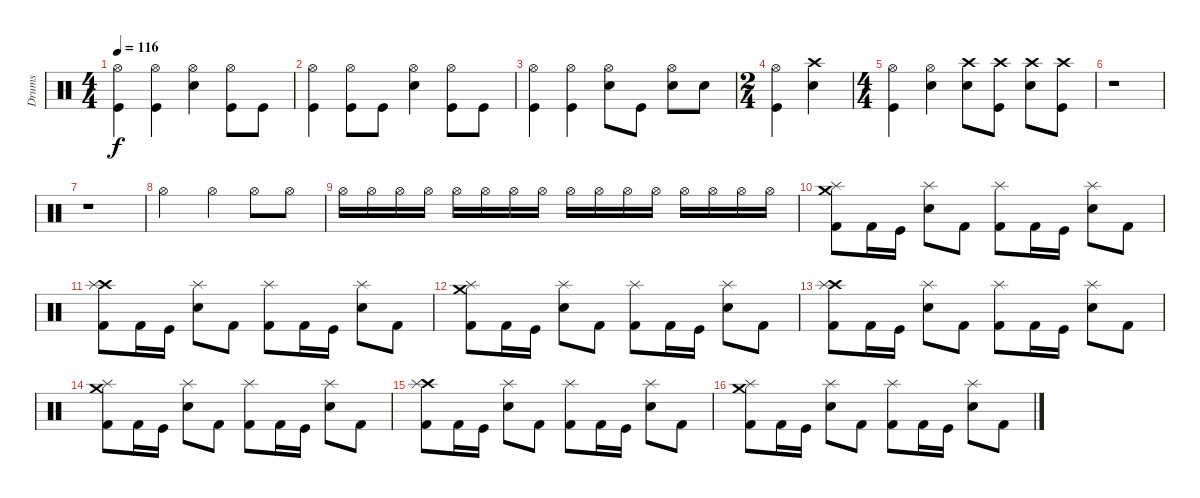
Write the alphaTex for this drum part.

\track ("Drums" "Drums") {instrument percussion}
\staff {score}
\articulation defaults
\ts (4 4)
\tempo 116
\clef neutral
\ks c
("Hi-Hat (open)" "Kick (hit)").4{dy f} ("Hi-Hat (open)" "Kick (hit)").4 ("Hi-Hat (open)" "Snare (hit) 2").4 ("Hi-Hat (open)" "Kick (hit)").8 "Kick (hit)".8 |
("Hi-Hat (open)" "Kick (hit)").4 ("Hi-Hat (open)" "Kick (hit)").8 "Kick (hit)".8 ("Hi-Hat (open)" "Snare (hit) 2").4 ("Hi-Hat (open)" "Kick (hit)").8 "Kick (hit)".8 |
("Hi-Hat (open)" "Kick (hit)").4 ("Hi-Hat (open)" "Kick (hit)").4 ("Hi-Hat (open)" "Snare (hit) 2").8 "Kick (hit)".8 ("Hi-Hat (open)" "Snare (hit) 2").8 "Snare (hit) 2".8 |
\ts (2 4)
("Hi-Hat (open)" "Kick (hit)").4 ("Crash high (hit)" "Snare (hit) 2").4 |
\ts (4 4)
("Hi-Hat (open)" "Kick (hit)").4 ("Hi-Hat (open)" "Snare (hit) 2").4 ("Crash high (hit)" "Snare (hit) 2").8 ("Crash high (hit)" "Kick (hit)").8 ("Crash high (hit)" "Snare (hit) 2").8 ("Crash high (hit)" "Kick (hit)").8 |
r.1 |
r.1 |
"Hi-Hat (open)".2{volume 3} "Hi-Hat (open)".4{volume 16} "Hi-Hat (open)".8 "Hi-Hat (open)".8 |
"Hi-Hat (open)".16 "Hi-Hat (open)".16 "Hi-Hat (open)".16 "Hi-Hat (open)".16 "Hi-Hat (open)".16 "Hi-Hat (open)".16 "Hi-Hat (open)".16 "Hi-Hat (open)".16 "Hi-Hat (open)".16 "Hi-Hat (open)".16 "Hi-Hat (open)".16 "Hi-Hat (open)".16 "Hi-Hat (open)".16 "Hi-Hat (open)".16 "Hi-Hat (open)".16 "Hi-Hat (open)".16 |
("Crash medium (hit)" "Splash (hit)" "Kick (hit) 2").8 "Kick (hit) 2".16 "Kick (hit)".16 ("Splash (hit)" "Snare (hit) 2").8 "Kick (hit) 2".8 ("Splash (hit)" "Kick (hit) 2").8 "Kick (hit) 2".16 "Kick (hit)".16 ("Splash (hit)" "Snare (hit) 2").8 "Kick (hit) 2".8 |
("Crash high (hit)" "Splash (hit)" "Kick (hit) 2").8 "Kick (hit) 2".16 "Kick (hit)".16 ("Splash (hit)" "Snare (hit) 2").8 "Kick (hit) 2".8 ("Splash (hit)" "Kick (hit) 2").8 "Kick (hit) 2".16 "Kick (hit)".16 ("Splash (hit)" "Snare (hit) 2").8 "Kick (hit) 2".8 |
("Crash medium (hit)" "Splash (hit)" "Kick (hit) 2").8 "Kick (hit) 2".16 "Kick (hit)".16 ("Splash (hit)" "Snare (hit) 2").8 "Kick (hit) 2".8 ("Splash (hit)" "Kick (hit) 2").8 "Kick (hit) 2".16 "Kick (hit)".16 ("Splash (hit)" "Snare (hit) 2").8 "Kick (hit) 2".8 |
("Crash high (hit)" "Splash (hit)" "Kick (hit) 2").8 "Kick (hit) 2".16 "Kick (hit)".16 ("Splash (hit)" "Snare (hit) 2").8 "Kick (hit) 2".8 ("Splash (hit)" "Kick (hit) 2").8 "Kick (hit) 2".16 "Kick (hit)".16 ("Splash (hit)" "Snare (hit) 2").8 "Kick (hit) 2".8 |
("Crash medium (hit)" "Splash (hit)" "Kick (hit) 2").8 "Kick (hit) 2".16 "Kick (hit)".16 ("Splash (hit)" "Snare (hit) 2").8 "Kick (hit) 2".8 ("Splash (hit)" "Kick (hit) 2").8 "Kick (hit) 2".16 "Kick (hit)".16 ("Splash (hit)" "Snare (hit) 2").8 "Kick (hit) 2".8 |
("Crash high (hit)" "Splash (hit)" "Kick (hit) 2").8 "Kick (hit) 2".16 "Kick (hit)".16 ("Splash (hit)" "Snare (hit) 2").8 "Kick (hit) 2".8 ("Splash (hit)" "Kick (hit) 2").8 "Kick (hit) 2".16 "Kick (hit)".16 ("Splash (hit)" "Snare (hit) 2").8 "Kick (hit) 2".8 |
("Crash medium (hit)" "Splash (hit)" "Kick (hit) 2").8 "Kick (hit) 2".16 "Kick (hit)".16 ("Splash (hit)" "Snare (hit) 2").8 "Kick (hit) 2".8 ("Splash (hit)" "Kick (hit) 2").8 "Kick (hit) 2".16 "Kick (hit)".16 ("Splash (hit)" "Snare (hit) 2").8 "Kick (hit) 2".8
